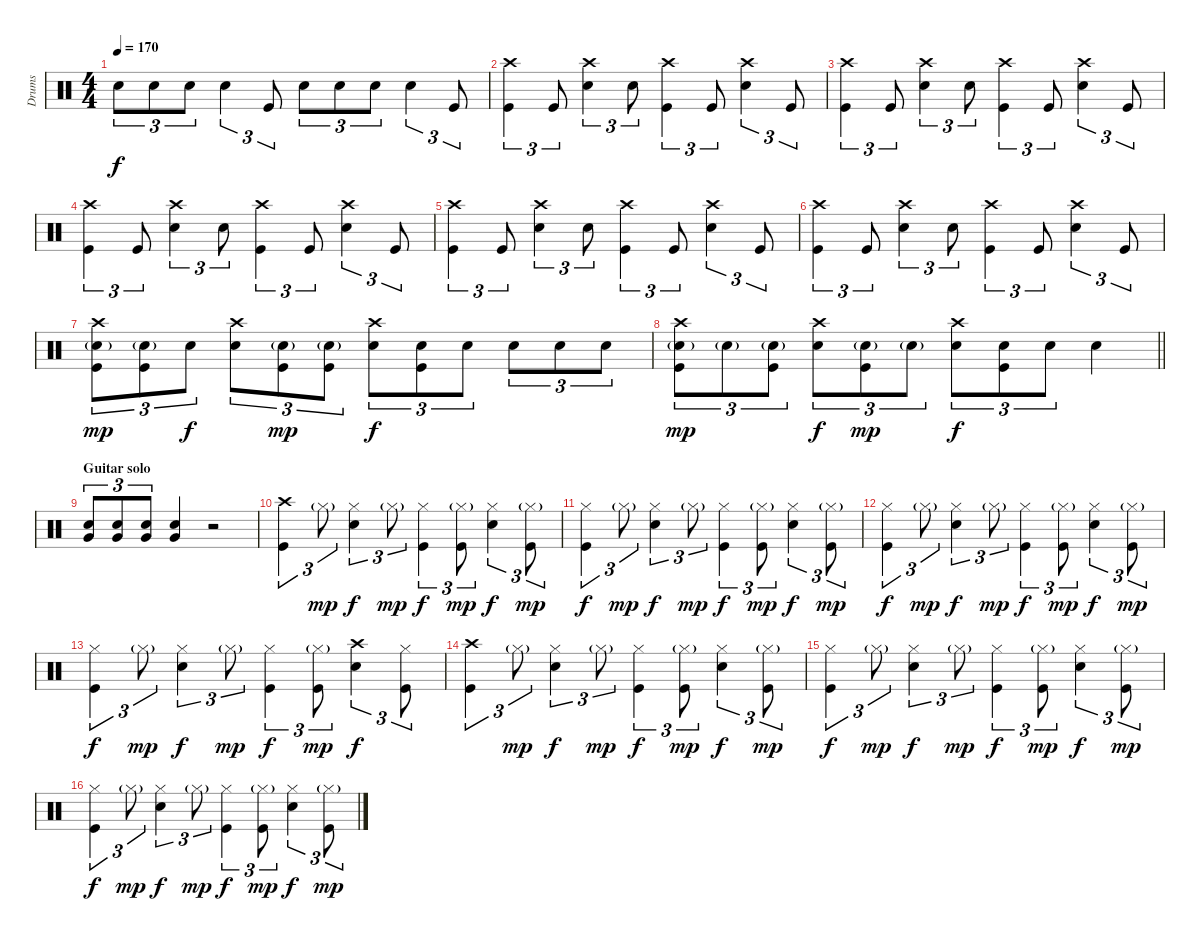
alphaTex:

\track ("Drums" "Drums") {instrument percussion}
\staff {score}
\articulation defaults
\ts (4 4)
\tempo 170
\clef neutral
\ks c "Snare (hit) 2".8{tu (3 2) dy f} "Snare (hit) 2".8{tu (3 2)} "Snare (hit) 2".8{tu (3 2)} "Snare (hit) 2".4{tu (3 2)} "Kick (hit)".8{tu (3 2)} "Snare (hit) 2".8{tu (3 2)} "Snare (hit) 2".8{tu (3 2)} "Snare (hit) 2".8{tu (3 2)} "Snare (hit) 2".4{tu (3 2)} "Kick (hit)".8{tu (3 2)}
|
("Crash high (hit)" "Kick (hit)").4{tu (3 2)} "Kick (hit)".8{tu (3 2)} ("Crash high (hit)" "Snare (hit) 2").4{tu (3 2)} "Snare (hit) 2".8{tu (3 2)} ("Crash high (hit)" "Kick (hit)").4{tu (3 2)} "Kick (hit)".8{tu (3 2)} ("Crash high (hit)" "Snare (hit) 2").4{tu (3 2)} "Kick (hit)".8{tu (3 2)} |
("Crash high (hit)" "Kick (hit)").4{tu (3 2)} "Kick (hit)".8{tu (3 2)} ("Crash high (hit)" "Snare (hit) 2").4{tu (3 2)} "Snare (hit) 2".8{tu (3 2)} ("Crash high (hit)" "Kick (hit)").4{tu (3 2)} "Kick (hit)".8{tu (3 2)} ("Crash high (hit)" "Snare (hit) 2").4{tu (3 2)} "Kick (hit)".8{tu (3 2)} |
("Crash high (hit)" "Kick (hit)").4{tu (3 2)} "Kick (hit)".8{tu (3 2)} ("Crash high (hit)" "Snare (hit) 2").4{tu (3 2)} "Snare (hit) 2".8{tu (3 2)} ("Crash high (hit)" "Kick (hit)").4{tu (3 2)} "Kick (hit)".8{tu (3 2)} ("Crash high (hit)" "Snare (hit) 2").4{tu (3 2)} "Kick (hit)".8{tu (3 2)} |
("Crash high (hit)" "Kick (hit)").4{tu (3 2)} "Kick (hit)".8{tu (3 2)} ("Crash high (hit)" "Snare (hit) 2").4{tu (3 2)} "Snare (hit) 2".8{tu (3 2)} ("Crash high (hit)" "Kick (hit)").4{tu (3 2)} "Kick (hit)".8{tu (3 2)} ("Crash high (hit)" "Snare (hit) 2").4{tu (3 2)} "Kick (hit)".8{tu (3 2)} |
("Crash high (hit)" "Kick (hit)").4{tu (3 2)} "Kick (hit)".8{tu (3 2)} ("Crash high (hit)" "Snare (hit) 2").4{tu (3 2)} "Snare (hit) 2".8{tu (3 2)} ("Crash high (hit)" "Kick (hit)").4{tu (3 2)} "Kick (hit)".8{tu (3 2)} ("Crash high (hit)" "Snare (hit) 2").4{tu (3 2)} "Kick (hit)".8{tu (3 2)} |
("Crash high (hit)" "Snare (hit) 2"{g} "Kick (hit)").8{tu (3 2) dy mp} ("Snare (hit) 2"{g} "Kick (hit)").8{tu (3 2)} "Snare (hit) 2".8{tu (3 2) dy f} ("Crash high (hit)" "Snare (hit) 2").8{tu (3 2)} ("Snare (hit) 2"{g} "Kick (hit)").8{tu (3 2) dy mp} ("Snare (hit) 2"{g} "Kick (hit)").8{tu (3 2)} ("Crash high (hit)" "Snare (hit) 2").8{tu (3 2) dy f} ("Snare (hit) 2" "Kick (hit)").8{tu (3 2)} "Snare (hit) 2".8{tu (3 2)} "Snare (hit) 2".8{tu (3 2)} "Snare (hit) 2".8{tu (3 2)} "Snare (hit) 2".8{tu (3 2)} |
\barLineRight lightlight
("Crash high (hit)" "Snare (hit) 2"{g} "Kick (hit)").8{tu (3 2) dy mp} "Snare (hit) 2"{g}.8{tu (3 2)} ("Snare (hit) 2"{g} "Kick (hit)").8{tu (3 2)} ("Crash high (hit)" "Snare (hit) 2").8{tu (3 2) dy f} ("Snare (hit) 2"{g} "Kick (hit)").8{tu (3 2) dy mp} "Snare (hit) 2"{g}.8{tu (3 2)} ("Crash high (hit)" "Snare (hit) 2").8{tu (3 2) dy f} ("Snare (hit) 2" "Kick (hit)").8{tu (3 2)} "Snare (hit) 2".8{tu (3 2)} "Snare (hit) 2".4 |
\section ("" "Guitar solo")
("Snare (hit) 2" "Very Low Tom (hit)").8{tu (3 2)} ("Snare (hit) 2" "Very Low Tom (hit)").8{tu (3 2)} ("Snare (hit) 2" "Very Low Tom (hit)").8{tu (3 2)} ("Snare (hit) 2" "Very Low Tom (hit)").4 r.2 |
("Crash high (hit)" "Kick (hit)").4{tu (3 2)} "Hi-Hat (closed)"{g}.8{tu (3 2) dy mp} ("Hi-Hat (closed)" "Snare (hit) 2").4{tu (3 2) dy f} "Hi-Hat (closed)"{g}.8{tu (3 2) dy mp} ("Hi-Hat (closed)" "Kick (hit)").4{tu (3 2) dy f} ("Hi-Hat (closed)"{g} "Kick (hit)").8{tu (3 2) dy mp} ("Hi-Hat (closed)" "Snare (hit) 2").4{tu (3 2) dy f} ("Hi-Hat (closed)"{g} "Kick (hit)").8{tu (3 2) dy mp} |
("Hi-Hat (closed)" "Kick (hit)").4{tu (3 2) dy f} "Hi-Hat (closed)"{g}.8{tu (3 2) dy mp} ("Hi-Hat (closed)" "Snare (hit) 2").4{tu (3 2) dy f} "Hi-Hat (closed)"{g}.8{tu (3 2) dy mp} ("Hi-Hat (closed)" "Kick (hit)").4{tu (3 2) dy f} ("Hi-Hat (closed)"{g} "Kick (hit)").8{tu (3 2) dy mp} ("Hi-Hat (closed)" "Snare (hit) 2").4{tu (3 2) dy f} ("Hi-Hat (closed)"{g} "Kick (hit)").8{tu (3 2) dy mp} |
("Hi-Hat (closed)" "Kick (hit)").4{tu (3 2) dy f} "Hi-Hat (closed)"{g}.8{tu (3 2) dy mp} ("Hi-Hat (closed)" "Snare (hit) 2").4{tu (3 2) dy f} "Hi-Hat (closed)"{g}.8{tu (3 2) dy mp} ("Hi-Hat (closed)" "Kick (hit)").4{tu (3 2) dy f} ("Hi-Hat (closed)"{g} "Kick (hit)").8{tu (3 2) dy mp} ("Hi-Hat (closed)" "Snare (hit) 2").4{tu (3 2) dy f} ("Hi-Hat (closed)"{g} "Kick (hit)").8{tu (3 2) dy mp} |
("Hi-Hat (closed)" "Kick (hit)").4{tu (3 2) dy f} "Hi-Hat (closed)"{g}.8{tu (3 2) dy mp} ("Hi-Hat (closed)" "Snare (hit) 2").4{tu (3 2) dy f} "Hi-Hat (closed)"{g}.8{tu (3 2) dy mp} ("Hi-Hat (closed)" "Kick (hit)").4{tu (3 2) dy f} ("Hi-Hat (closed)"{g} "Kick (hit)").8{tu (3 2) dy mp} ("Crash high (hit)" "Snare (hit) 2").4{tu (3 2) dy f} ("Hi-Hat (closed)" "Kick (hit)").8{tu (3 2)} |
("Crash high (hit)" "Kick (hit)").4{tu (3 2)} "Hi-Hat (closed)"{g}.8{tu (3 2) dy mp} ("Hi-Hat (closed)" "Snare (hit) 2").4{tu (3 2) dy f} "Hi-Hat (closed)"{g}.8{tu (3 2) dy mp} ("Hi-Hat (closed)" "Kick (hit)").4{tu (3 2) dy f} ("Hi-Hat (closed)"{g} "Kick (hit)").8{tu (3 2) dy mp} ("Hi-Hat (closed)" "Snare (hit) 2").4{tu (3 2) dy f} ("Hi-Hat (closed)"{g} "Kick (hit)").8{tu (3 2) dy mp} |
("Hi-Hat (closed)" "Kick (hit)").4{tu (3 2) dy f} "Hi-Hat (closed)"{g}.8{tu (3 2) dy mp} ("Hi-Hat (closed)" "Snare (hit) 2").4{tu (3 2) dy f} "Hi-Hat (closed)"{g}.8{tu (3 2) dy mp} ("Hi-Hat (closed)" "Kick (hit)").4{tu (3 2) dy f} ("Hi-Hat (closed)"{g} "Kick (hit)").8{tu (3 2) dy mp} ("Hi-Hat (closed)" "Snare (hit) 2").4{tu (3 2) dy f} ("Hi-Hat (closed)"{g} "Kick (hit)").8{tu (3 2) dy mp} |
("Hi-Hat (closed)" "Kick (hit)").4{tu (3 2) dy f} "Hi-Hat (closed)"{g}.8{tu (3 2) dy mp} ("Hi-Hat (closed)" "Snare (hit) 2").4{tu (3 2) dy f} "Hi-Hat (closed)"{g}.8{tu (3 2) dy mp} ("Hi-Hat (closed)" "Kick (hit)").4{tu (3 2) dy f} ("Hi-Hat (closed)"{g} "Kick (hit)").8{tu (3 2) dy mp} ("Hi-Hat (closed)" "Snare (hit) 2").4{tu (3 2) dy f} ("Hi-Hat (closed)"{g} "Kick (hit)").8{tu (3 2) dy mp}
